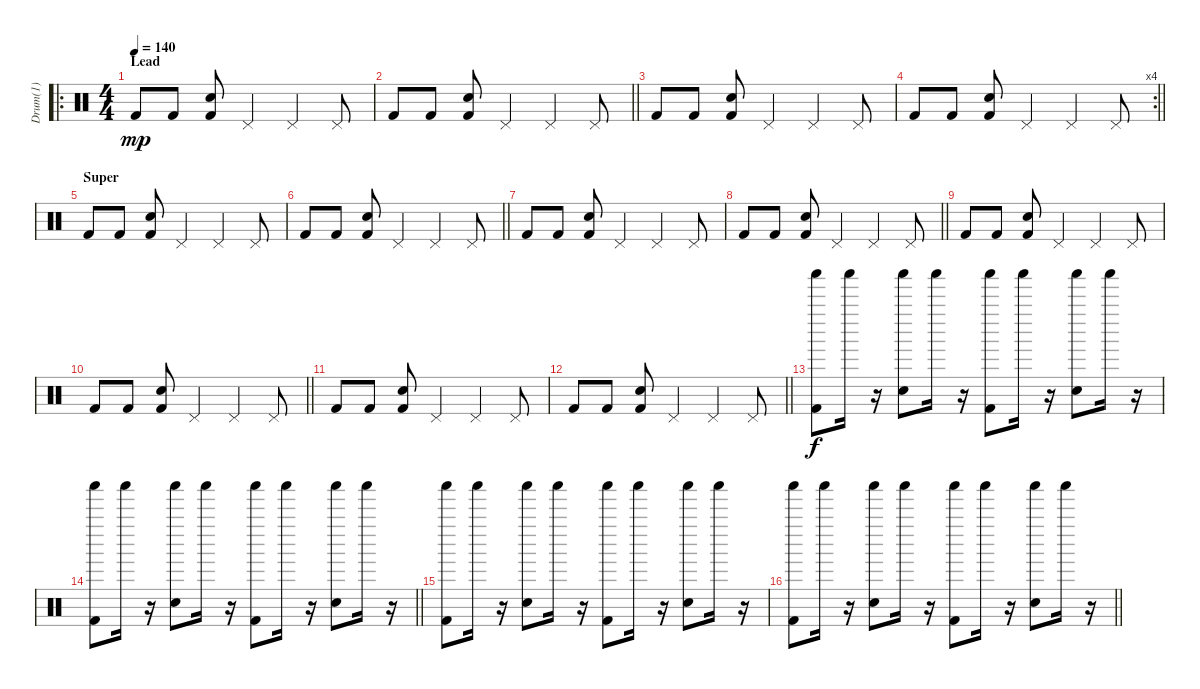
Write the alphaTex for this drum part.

\track ("Drum(1)" "Drum(1)") {instrument percussion}
\staff {score}
\articulation defaults
\ro
\ts (4 4)
\section ("" "Lead")
\tempo 140
\clef neutral
\ks c "Kick (hit) 2".8{dy mp} "Kick (hit) 2".8
("Snare (hit) 2" "Kick (hit) 2").8 "Pedal Hi-Hat (hit)".4 "Pedal Hi-Hat (hit)".4 "Pedal Hi-Hat (hit)".8 |
\barLineRight lightlight "Kick (hit) 2".8 "Kick (hit) 2".8
("Snare (hit) 2" "Kick (hit) 2").8 "Pedal Hi-Hat (hit)".4 "Pedal Hi-Hat (hit)".4 "Pedal Hi-Hat (hit)".8 |
"Kick (hit) 2".8 "Kick (hit) 2".8 ("Snare (hit) 2" "Kick (hit) 2").8 "Pedal Hi-Hat (hit)".4 "Pedal Hi-Hat (hit)".4 "Pedal Hi-Hat (hit)".8 |
\rc 4
\barLineRight lightlight "Kick (hit) 2".8 "Kick (hit) 2".8
("Snare (hit) 2" "Kick (hit) 2").8 "Pedal Hi-Hat (hit)".4 "Pedal Hi-Hat (hit)".4 "Pedal Hi-Hat (hit)".8 |
\section ("" "Super")
"Kick (hit) 2".8 "Kick (hit) 2".8 ("Snare (hit) 2" "Kick (hit) 2").8 "Pedal Hi-Hat (hit)".4 "Pedal Hi-Hat (hit)".4 "Pedal Hi-Hat (hit)".8 |
\barLineRight lightlight "Kick (hit) 2".8 "Kick (hit) 2".8
("Snare (hit) 2" "Kick (hit) 2").8 "Pedal Hi-Hat (hit)".4 "Pedal Hi-Hat (hit)".4 "Pedal Hi-Hat (hit)".8 |
"Kick (hit) 2".8 "Kick (hit) 2".8 ("Snare (hit) 2" "Kick (hit) 2").8 "Pedal Hi-Hat (hit)".4 "Pedal Hi-Hat (hit)".4 "Pedal Hi-Hat (hit)".8 |
\barLineRight lightlight "Kick (hit) 2".8 "Kick (hit) 2".8
("Snare (hit) 2" "Kick (hit) 2").8 "Pedal Hi-Hat (hit)".4 "Pedal Hi-Hat (hit)".4 "Pedal Hi-Hat (hit)".8 |
"Kick (hit) 2".8 "Kick (hit) 2".8 ("Snare (hit) 2" "Kick (hit) 2").8 "Pedal Hi-Hat (hit)".4 "Pedal Hi-Hat (hit)".4 "Pedal Hi-Hat (hit)".8 |
\barLineRight lightlight "Kick (hit) 2".8 "Kick (hit) 2".8
("Snare (hit) 2" "Kick (hit) 2").8 "Pedal Hi-Hat (hit)".4 "Pedal Hi-Hat (hit)".4 "Pedal Hi-Hat (hit)".8 |
"Kick (hit) 2".8 "Kick (hit) 2".8 ("Snare (hit) 2" "Kick (hit) 2").8 "Pedal Hi-Hat (hit)".4 "Pedal Hi-Hat (hit)".4 "Pedal Hi-Hat (hit)".8 |
\barLineRight lightlight "Kick (hit) 2".8 "Kick (hit) 2".8
("Snare (hit) 2" "Kick (hit) 2").8 "Pedal Hi-Hat (hit)".4 "Pedal Hi-Hat (hit)".4 "Pedal Hi-Hat (hit)".8 |
("Kick (hit) 2" "Shaker (hit)").8{dy f} "Shaker (hit)".16 r.16 ("Electric Snare (hit)" "Shaker (hit)").8 "Shaker (hit)".16 r.16 ("Kick (hit) 2" "Shaker (hit)").8 "Shaker (hit)".16 r.16 ("Electric Snare (hit)" "Shaker (hit)").8 "Shaker (hit)".16 r.16 |
\barLineRight lightlight
("Kick (hit) 2" "Shaker (hit)").8 "Shaker (hit)".16 r.16 ("Electric Snare (hit)" "Shaker (hit)").8 "Shaker (hit)".16 r.16 ("Kick (hit) 2" "Shaker (hit)").8 "Shaker (hit)".16 r.16 ("Electric Snare (hit)" "Shaker (hit)").8 "Shaker (hit)".16 r.16 |
("Kick (hit) 2" "Shaker (hit)").8 "Shaker (hit)".16 r.16 ("Electric Snare (hit)" "Shaker (hit)").8 "Shaker (hit)".16 r.16 ("Kick (hit) 2" "Shaker (hit)").8 "Shaker (hit)".16 r.16 ("Electric Snare (hit)" "Shaker (hit)").8 "Shaker (hit)".16 r.16 |
\barLineRight lightlight
("Kick (hit) 2" "Shaker (hit)").8 "Shaker (hit)".16 r.16 ("Electric Snare (hit)" "Shaker (hit)").8 "Shaker (hit)".16 r.16 ("Kick (hit) 2" "Shaker (hit)").8 "Shaker (hit)".16 r.16 ("Electric Snare (hit)" "Shaker (hit)").8 "Shaker (hit)".16 r.16
